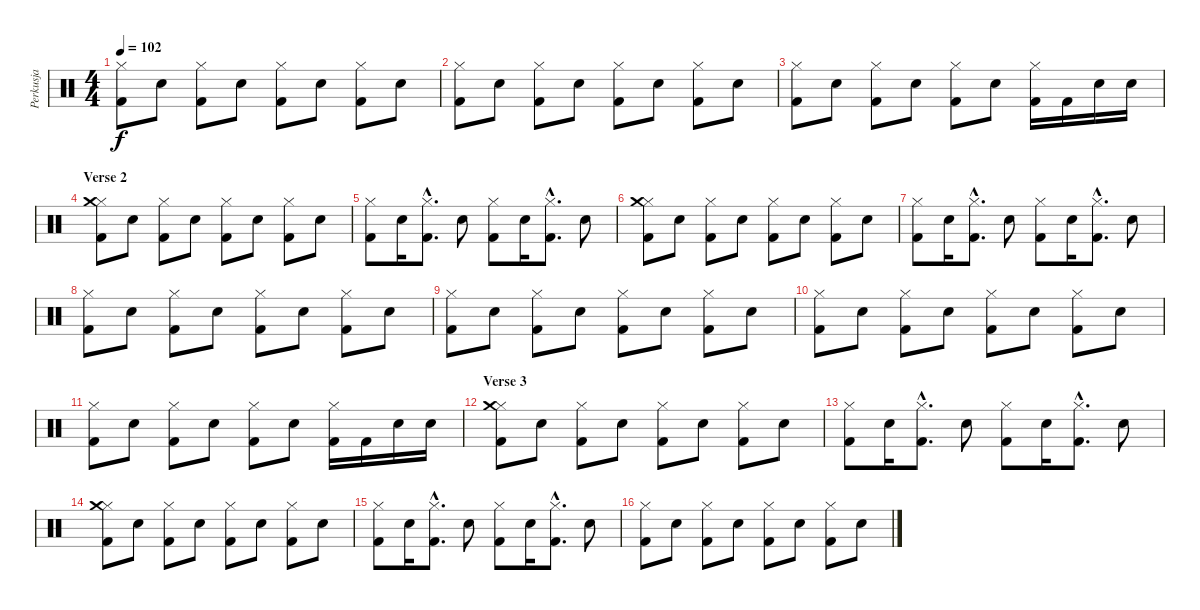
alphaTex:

\track ("Perkusja" "Perkusja") {instrument percussion}
\staff {score}
\articulation defaults
\ts (4 4)
\tempo 102
\clef neutral
\ks c
("Kick (hit) 2" "Hi-Hat (closed)").8{dy f} "Snare (hit) 2".8 ("Kick (hit) 2" "Hi-Hat (closed)").8 "Snare (hit) 2".8 ("Kick (hit) 2" "Hi-Hat (closed)").8 "Snare (hit) 2".8 ("Kick (hit) 2" "Hi-Hat (closed)").8 "Snare (hit) 2".8 |
("Kick (hit) 2" "Hi-Hat (closed)").8 "Snare (hit) 2".8 ("Kick (hit) 2" "Hi-Hat (closed)").8 "Snare (hit) 2".8 ("Kick (hit) 2" "Hi-Hat (closed)").8 "Snare (hit) 2".8 ("Kick (hit) 2" "Hi-Hat (closed)").8 "Snare (hit) 2".8 |
("Kick (hit) 2" "Hi-Hat (closed)").8 "Snare (hit) 2".8 ("Kick (hit) 2" "Hi-Hat (closed)").8 "Snare (hit) 2".8 ("Kick (hit) 2" "Hi-Hat (closed)").8 "Snare (hit) 2".8 ("Kick (hit) 2" "Hi-Hat (closed)").16 "Kick (hit) 2".16 "Snare (hit) 2".16 "Snare (hit) 2".16 |
\section ("" "Verse 2")
("Kick (hit) 2" "Hi-Hat (closed)" "Crash medium (hit)").8 "Snare (hit) 2".8 ("Kick (hit) 2" "Hi-Hat (closed)").8 "Snare (hit) 2".8 ("Kick (hit) 2" "Hi-Hat (closed)").8 "Snare (hit) 2".8 ("Kick (hit) 2" "Hi-Hat (closed)").8 "Snare (hit) 2".8 |
("Kick (hit) 2" "Hi-Hat (closed)").8 "Snare (hit) 2".16 ("Kick (hit) 2"{hac} "Hi-Hat (closed)"{hac}).8{d} "Snare (hit) 2".8 ("Kick (hit) 2" "Hi-Hat (closed)").8 "Snare (hit) 2".16 ("Kick (hit) 2"{hac} "Hi-Hat (closed)"{hac}).8{d} "Snare (hit) 2".8 |
("Kick (hit) 2" "Hi-Hat (closed)" "Crash medium (hit)").8 "Snare (hit) 2".8 ("Kick (hit) 2" "Hi-Hat (closed)").8 "Snare (hit) 2".8 ("Kick (hit) 2" "Hi-Hat (closed)").8 "Snare (hit) 2".8 ("Kick (hit) 2" "Hi-Hat (closed)").8 "Snare (hit) 2".8 |
("Kick (hit) 2" "Hi-Hat (closed)").8 "Snare (hit) 2".16 ("Kick (hit) 2"{hac} "Hi-Hat (closed)"{hac}).8{d} "Snare (hit) 2".8 ("Kick (hit) 2" "Hi-Hat (closed)").8 "Snare (hit) 2".16 ("Kick (hit) 2"{hac} "Hi-Hat (closed)"{hac}).8{d} "Snare (hit) 2".8 |
("Kick (hit) 2" "Hi-Hat (closed)").8 "Snare (hit) 2".8 ("Kick (hit) 2" "Hi-Hat (closed)").8 "Snare (hit) 2".8 ("Kick (hit) 2" "Hi-Hat (closed)").8 "Snare (hit) 2".8 ("Kick (hit) 2" "Hi-Hat (closed)").8 "Snare (hit) 2".8 |
("Kick (hit) 2" "Hi-Hat (closed)").8 "Snare (hit) 2".8 ("Kick (hit) 2" "Hi-Hat (closed)").8 "Snare (hit) 2".8 ("Kick (hit) 2" "Hi-Hat (closed)").8 "Snare (hit) 2".8 ("Kick (hit) 2" "Hi-Hat (closed)").8 "Snare (hit) 2".8 |
("Kick (hit) 2" "Hi-Hat (closed)").8 "Snare (hit) 2".8 ("Kick (hit) 2" "Hi-Hat (closed)").8 "Snare (hit) 2".8 ("Kick (hit) 2" "Hi-Hat (closed)").8 "Snare (hit) 2".8 ("Kick (hit) 2" "Hi-Hat (closed)").8 "Snare (hit) 2".8 |
("Kick (hit) 2" "Hi-Hat (closed)").8 "Snare (hit) 2".8 ("Kick (hit) 2" "Hi-Hat (closed)").8 "Snare (hit) 2".8 ("Kick (hit) 2" "Hi-Hat (closed)").8 "Snare (hit) 2".8 ("Kick (hit) 2" "Hi-Hat (closed)").16 "Kick (hit) 2".16 "Snare (hit) 2".16 "Snare (hit) 2".16 |
\section ("" "Verse 3")
("Kick (hit) 2" "Hi-Hat (closed)" "Crash medium (hit)").8 "Snare (hit) 2".8 ("Kick (hit) 2" "Hi-Hat (closed)").8 "Snare (hit) 2".8 ("Kick (hit) 2" "Hi-Hat (closed)").8 "Snare (hit) 2".8 ("Kick (hit) 2" "Hi-Hat (closed)").8 "Snare (hit) 2".8 |
("Kick (hit) 2" "Hi-Hat (closed)").8 "Snare (hit) 2".16 ("Kick (hit) 2"{hac} "Hi-Hat (closed)"{hac}).8{d} "Snare (hit) 2".8 ("Kick (hit) 2" "Hi-Hat (closed)").8 "Snare (hit) 2".16 ("Kick (hit) 2"{hac} "Hi-Hat (closed)"{hac}).8{d} "Snare (hit) 2".8 |
("Kick (hit) 2" "Hi-Hat (closed)" "Crash medium (hit)").8 "Snare (hit) 2".8 ("Kick (hit) 2" "Hi-Hat (closed)").8 "Snare (hit) 2".8 ("Kick (hit) 2" "Hi-Hat (closed)").8 "Snare (hit) 2".8 ("Kick (hit) 2" "Hi-Hat (closed)").8 "Snare (hit) 2".8 |
("Kick (hit) 2" "Hi-Hat (closed)").8 "Snare (hit) 2".16 ("Kick (hit) 2"{hac} "Hi-Hat (closed)"{hac}).8{d} "Snare (hit) 2".8 ("Kick (hit) 2" "Hi-Hat (closed)").8 "Snare (hit) 2".16 ("Kick (hit) 2"{hac} "Hi-Hat (closed)"{hac}).8{d} "Snare (hit) 2".8 |
("Kick (hit) 2" "Hi-Hat (closed)").8 "Snare (hit) 2".8 ("Kick (hit) 2" "Hi-Hat (closed)").8 "Snare (hit) 2".8 ("Kick (hit) 2" "Hi-Hat (closed)").8 "Snare (hit) 2".8 ("Kick (hit) 2" "Hi-Hat (closed)").8 "Snare (hit) 2".8
